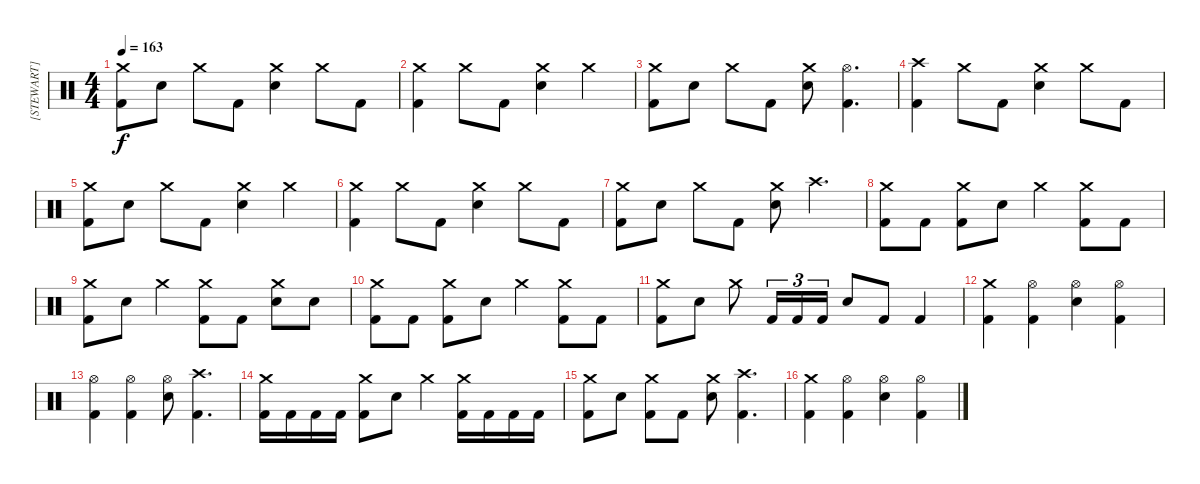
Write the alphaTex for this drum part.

\track ("[STEWART]" "[STEWART]") {instrument percussion}
\staff {score}
\articulation defaults
\ts (4 4)
\tempo 163
\clef neutral
\ks c
("Crash medium (hit)" "Kick (hit) 2").8{dy f} "Electric Snare (hit)".8 "Crash medium (hit)".8 "Kick (hit) 2".8 ("Crash medium (hit)" "Electric Snare (hit)").4 "Crash medium (hit)".8 "Kick (hit) 2".8 |
("Crash medium (hit)" "Kick (hit) 2").4 "Crash medium (hit)".8 "Kick (hit) 2".8 ("Crash medium (hit)" "Electric Snare (hit)").4 "Crash medium (hit)".4 |
("Crash medium (hit)" "Kick (hit) 2").8 "Electric Snare (hit)".8 "Crash medium (hit)".8 "Kick (hit) 2".8 ("Crash medium (hit)" "Electric Snare (hit)").8 ("Hi-Hat (open)" "Kick (hit) 2").4{d} |
("Crash high (hit)" "Kick (hit) 2").4 "Crash medium (hit)".8 "Kick (hit) 2".8 ("Crash medium (hit)" "Electric Snare (hit)").4 "Crash medium (hit)".8 "Kick (hit) 2".8 |
("Crash medium (hit)" "Kick (hit) 2").8 "Electric Snare (hit)".8 "Crash medium (hit)".8 "Kick (hit) 2".8 ("Crash medium (hit)" "Electric Snare (hit)").4 "Crash medium (hit)".4 |
("Crash medium (hit)" "Kick (hit) 2").4 "Crash medium (hit)".8 "Kick (hit) 2".8 ("Crash medium (hit)" "Electric Snare (hit)").4 "Crash medium (hit)".8 "Kick (hit) 2".8 |
("Crash medium (hit)" "Kick (hit) 2").8 "Electric Snare (hit)".8 "Crash medium (hit)".8 "Kick (hit) 2".8 ("Crash medium (hit)" "Electric Snare (hit)").8 "Crash high (hit)".4{d} |
("Crash medium (hit)" "Kick (hit) 2").8 "Kick (hit) 2".8 ("Crash medium (hit)" "Kick (hit) 2").8 "Electric Snare (hit)".8 "Crash medium (hit)".4 ("Crash medium (hit)" "Kick (hit) 2").8 "Kick (hit) 2".8 |
("Crash medium (hit)" "Kick (hit) 2").8 "Electric Snare (hit)".8 "Crash medium (hit)".4 ("Crash medium (hit)" "Kick (hit) 2").8 "Kick (hit) 2".8 ("Crash medium (hit)" "Electric Snare (hit)").8 "Electric Snare (hit)".8 |
("Crash medium (hit)" "Kick (hit) 2").8 "Kick (hit) 2".8 ("Crash medium (hit)" "Kick (hit) 2").8 "Electric Snare (hit)".8 "Crash medium (hit)".4 ("Crash medium (hit)" "Kick (hit) 2").8 "Kick (hit) 2".8 |
("Crash medium (hit)" "Kick (hit) 2").8 "Electric Snare (hit)".8 "Crash medium (hit)".8 "Kick (hit) 2".16{tu (3 2)} "Kick (hit) 2".16{tu (3 2)} "Kick (hit) 2".16{tu (3 2)} "Electric Snare (hit)".8 "Kick (hit) 2".8 "Kick (hit) 2".4 |
("Crash medium (hit)" "Kick (hit) 2").4 ("Hi-Hat (open)" "Kick (hit) 2").4 ("Hi-Hat (open)" "Electric Snare (hit)").4 ("Hi-Hat (open)" "Kick (hit) 2").4 |
("Hi-Hat (open)" "Kick (hit) 2").4 ("Hi-Hat (open)" "Kick (hit) 2").4 ("Hi-Hat (open)" "Electric Snare (hit)").8 ("Crash high (hit)" "Kick (hit) 2").4{d} |
("Crash medium (hit)" "Kick (hit) 2").16 "Kick (hit) 2".16 "Kick (hit) 2".16 "Kick (hit) 2".16 ("Crash medium (hit)" "Kick (hit) 2").8 "Electric Snare (hit)".8 "Crash medium (hit)".4 ("Crash medium (hit)" "Kick (hit) 2").16 "Kick (hit) 2".16 "Kick (hit) 2".16 "Kick (hit) 2".16 |
("Crash medium (hit)" "Kick (hit) 2").8 "Electric Snare (hit)".8 ("Crash medium (hit)" "Kick (hit) 2").8 "Kick (hit) 2".8 ("Crash medium (hit)" "Electric Snare (hit)").8 ("Crash high (hit)" "Kick (hit) 2").4{d} |
("Crash medium (hit)" "Kick (hit) 2").4 ("Hi-Hat (open)" "Kick (hit) 2").4 ("Hi-Hat (open)" "Electric Snare (hit)").4 ("Hi-Hat (open)" "Kick (hit) 2").4
